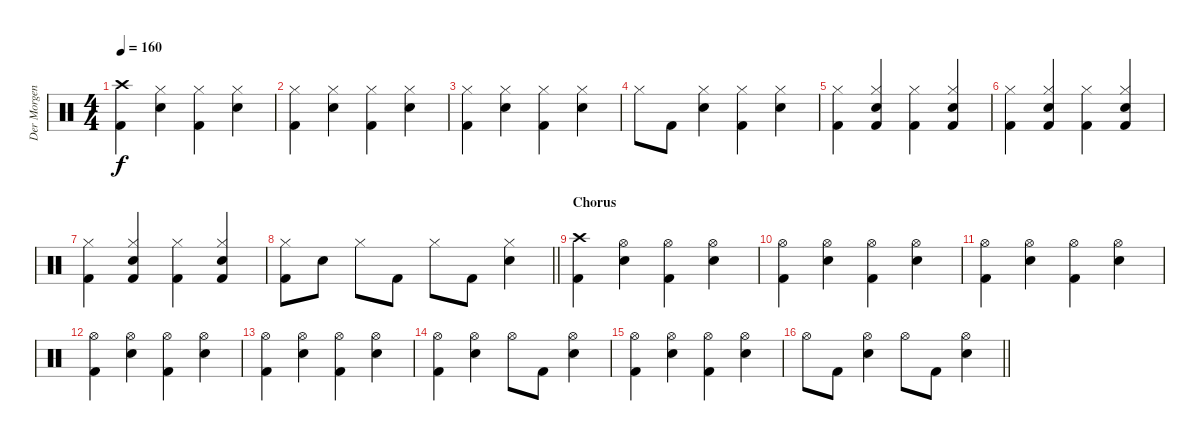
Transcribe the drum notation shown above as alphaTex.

\track ("Der Morgenstern" "Der Morgen") {instrument percussion}
\staff {score}
\articulation defaults
\ts (4 4)
\tempo 160
\clef neutral
\ks c
("Crash high (hit)" "Kick (hit) 2").4{dy f} ("Hi-Hat (closed)" "Electric Snare (hit)").4 ("Hi-Hat (closed)" "Kick (hit) 2").4 ("Hi-Hat (closed)" "Electric Snare (hit)").4 |
("Hi-Hat (closed)" "Kick (hit) 2").4 ("Hi-Hat (closed)" "Electric Snare (hit)").4 ("Hi-Hat (closed)" "Kick (hit) 2").4 ("Hi-Hat (closed)" "Electric Snare (hit)").4 |
("Hi-Hat (closed)" "Kick (hit) 2").4 ("Hi-Hat (closed)" "Electric Snare (hit)").4 ("Hi-Hat (closed)" "Kick (hit) 2").4 ("Hi-Hat (closed)" "Electric Snare (hit)").4 |
"Hi-Hat (closed)".8 "Kick (hit) 2".8 ("Hi-Hat (closed)" "Electric Snare (hit)").4 ("Hi-Hat (closed)" "Kick (hit) 2").4 ("Hi-Hat (closed)" "Electric Snare (hit)").4 |
("Hi-Hat (closed)" "Kick (hit) 2").4 ("Hi-Hat (closed)" "Electric Snare (hit)" "Kick (hit) 2").4 ("Hi-Hat (closed)" "Kick (hit) 2").4 ("Hi-Hat (closed)" "Electric Snare (hit)" "Kick (hit) 2").4 |
("Hi-Hat (closed)" "Kick (hit) 2").4 ("Hi-Hat (closed)" "Electric Snare (hit)" "Kick (hit) 2").4 ("Hi-Hat (closed)" "Kick (hit) 2").4 ("Hi-Hat (closed)" "Electric Snare (hit)" "Kick (hit) 2").4 |
("Hi-Hat (closed)" "Kick (hit) 2").4 ("Hi-Hat (closed)" "Electric Snare (hit)" "Kick (hit) 2").4 ("Hi-Hat (closed)" "Kick (hit) 2").4 ("Hi-Hat (closed)" "Electric Snare (hit)" "Kick (hit) 2").4 |
\barLineRight lightlight
("Hi-Hat (closed)" "Kick (hit) 2").8 "Electric Snare (hit)".8 "Hi-Hat (closed)".8 "Kick (hit) 2".8 "Hi-Hat (closed)".8 "Kick (hit) 2".8 ("Hi-Hat (closed)" "Electric Snare (hit)").4 |
\section ("" "Chorus")
("Crash high (hit)" "Kick (hit) 2").4 ("Hi-Hat (open)" "Electric Snare (hit)").4 ("Hi-Hat (open)" "Kick (hit) 2").4 ("Hi-Hat (open)" "Electric Snare (hit)").4 |
("Hi-Hat (open)" "Kick (hit) 2").4 ("Hi-Hat (open)" "Electric Snare (hit)").4 ("Hi-Hat (open)" "Kick (hit) 2").4 ("Hi-Hat (open)" "Electric Snare (hit)").4 |
("Hi-Hat (open)" "Kick (hit) 2").4 ("Hi-Hat (open)" "Electric Snare (hit)").4 ("Hi-Hat (open)" "Kick (hit) 2").4 ("Hi-Hat (open)" "Electric Snare (hit)").4 |
("Hi-Hat (open)" "Kick (hit) 2").4 ("Hi-Hat (open)" "Electric Snare (hit)").4 ("Hi-Hat (open)" "Kick (hit) 2").4 ("Hi-Hat (open)" "Electric Snare (hit)").4 |
("Hi-Hat (open)" "Kick (hit) 2").4 ("Hi-Hat (open)" "Electric Snare (hit)").4 ("Hi-Hat (open)" "Kick (hit) 2").4 ("Hi-Hat (open)" "Electric Snare (hit)").4 |
("Hi-Hat (open)" "Kick (hit) 2").4 ("Hi-Hat (open)" "Electric Snare (hit)").4 "Hi-Hat (open)".8 "Kick (hit) 2".8 ("Hi-Hat (open)" "Electric Snare (hit)").4 |
("Hi-Hat (open)" "Kick (hit) 2").4 ("Hi-Hat (open)" "Electric Snare (hit)").4 ("Hi-Hat (open)" "Kick (hit) 2").4 ("Hi-Hat (open)" "Electric Snare (hit)").4 |
\barLineRight lightlight "Hi-Hat (open)".8 "Kick (hit) 2".8
("Hi-Hat (open)" "Electric Snare (hit)").4 "Hi-Hat (open)".8 "Kick (hit) 2".8 ("Hi-Hat (open)" "Electric Snare (hit)").4
